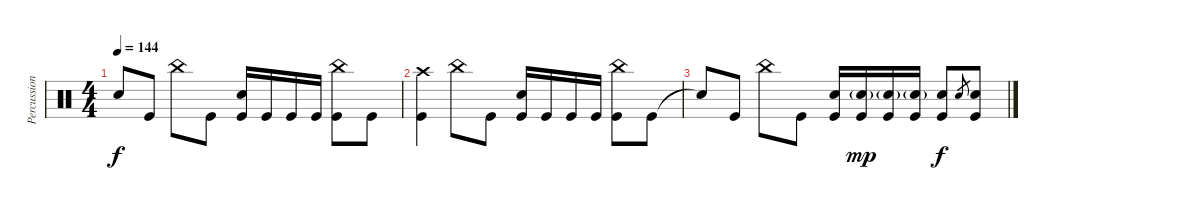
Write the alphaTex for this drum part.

\track ("Percussion" "Percussion") {instrument percussion}
\staff {score}
\articulation defaults
\ts (4 4)
\tempo 144
\clef neutral
\ks c "Snare (hit)"{t}.8{dy f} "Kick (hit)".8 "China (hit)".8 "Kick (hit)".8
("Electric Snare (hit)" "Kick (hit)").16 "Kick (hit)".16 "Kick (hit)".16 "Kick (hit)".16 ("China (hit)" "Kick (hit)").8 "Kick (hit)".8 |
("Crash high (hit)" "Kick (hit)").4 "China (hit)".8 "Kick (hit)".8 ("Electric Snare (hit)" "Kick (hit)").16 "Kick (hit)".16 "Kick (hit)".16 "Kick (hit)".16 ("China (hit)" "Kick (hit)").8 "Kick (hit)".8 |
"Snare (hit)"{t}.8 "Kick (hit)".8 "China (hit)".8 "Kick (hit)".8 ("Electric Snare (hit)" "Kick (hit)").16 ("Electric Snare (hit)"{g} "Kick (hit)").16{dy mp} ("Electric Snare (hit)"{g} "Kick (hit)").16 ("Electric Snare (hit)"{g} "Kick (hit)").16 ("Electric Snare (hit)" "Kick (hit)").8{dy f} "Electric Snare (hit)".8{gr} ("Electric Snare (hit)" "Kick (hit)").8
